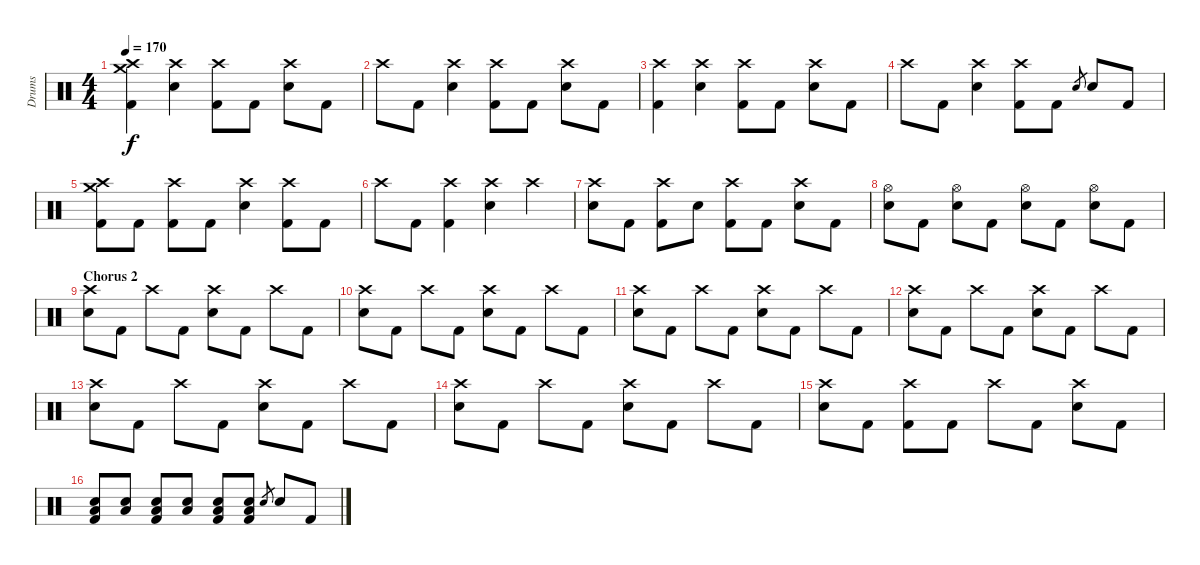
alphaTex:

\track ("Drums" "Drums") {instrument percussion}
\staff {score}
\articulation defaults
\ts (4 4)
\tempo 170
\clef neutral
\ks c
("Crash medium (hit)" "Crash high (hit)" "Kick (hit) 2").4{dy f} ("Crash high (hit)" "Snare (hit) 2").4 ("Crash high (hit)" "Kick (hit) 2").8 "Kick (hit) 2".8 ("Crash high (hit)" "Snare (hit) 2").8 "Kick (hit) 2".8 |
"Crash high (hit)".8 "Kick (hit) 2".8 ("Crash high (hit)" "Snare (hit) 2").4 ("Crash high (hit)" "Kick (hit) 2").8 "Kick (hit) 2".8 ("Crash high (hit)" "Snare (hit) 2").8 "Kick (hit) 2".8 |
("Crash high (hit)" "Kick (hit) 2").4 ("Crash high (hit)" "Snare (hit) 2").4 ("Crash high (hit)" "Kick (hit) 2").8 "Kick (hit) 2".8 ("Crash high (hit)" "Snare (hit) 2").8 "Kick (hit) 2".8 |
"Crash high (hit)".8 "Kick (hit) 2".8 ("Crash high (hit)" "Snare (hit) 2").4 ("Crash high (hit)" "Kick (hit) 2").8 "Kick (hit) 2".8 "Snare (hit) 2".8{gr} "Snare (hit) 2".8 "Kick (hit) 2".8 |
("Crash medium (hit)" "Crash high (hit)" "Kick (hit) 2").8 "Kick (hit) 2".8 ("Crash high (hit)" "Kick (hit) 2").8 "Kick (hit) 2".8 ("Crash high (hit)" "Snare (hit) 2").4 ("Crash high (hit)" "Kick (hit) 2").8 "Kick (hit) 2".8 |
"Crash high (hit)".8 "Kick (hit) 2".8 ("Crash high (hit)" "Kick (hit) 2").4 ("Crash high (hit)" "Snare (hit) 2").4 "Crash high (hit)".4 |
("Crash high (hit)" "Snare (hit) 2").8 "Kick (hit) 2".8 ("Crash high (hit)" "Kick (hit) 2").8 "Snare (hit) 2".8 ("Crash high (hit)" "Kick (hit) 2").8 "Kick (hit) 2".8 ("Crash high (hit)" "Snare (hit) 2").8 "Kick (hit) 2".8 |
("Hi-Hat (open)" "Snare (hit) 2").8 "Kick (hit) 2".8 ("Hi-Hat (open)" "Snare (hit) 2").8 "Kick (hit) 2".8 ("Hi-Hat (open)" "Snare (hit) 2").8 "Kick (hit) 2".8 ("Hi-Hat (open)" "Snare (hit) 2").8 "Kick (hit) 2".8 |
\section ("" "Chorus 2")
("Crash high (hit)" "Snare (hit) 2").8 "Kick (hit) 2".8 "Crash high (hit)".8 "Kick (hit) 2".8 ("Crash high (hit)" "Snare (hit) 2").8 "Kick (hit) 2".8 "Crash high (hit)".8 "Kick (hit) 2".8 |
("Crash high (hit)" "Snare (hit) 2").8 "Kick (hit) 2".8 "Crash high (hit)".8 "Kick (hit) 2".8 ("Crash high (hit)" "Snare (hit) 2").8 "Kick (hit) 2".8 "Crash high (hit)".8 "Kick (hit) 2".8 |
("Crash high (hit)" "Snare (hit) 2").8 "Kick (hit) 2".8 "Crash high (hit)".8 "Kick (hit) 2".8 ("Crash high (hit)" "Snare (hit) 2").8 "Kick (hit) 2".8 "Crash high (hit)".8 "Kick (hit) 2".8 |
("Crash high (hit)" "Snare (hit) 2").8 "Kick (hit) 2".8 "Crash high (hit)".8 "Kick (hit) 2".8 ("Crash high (hit)" "Snare (hit) 2").8 "Kick (hit) 2".8 "Crash high (hit)".8 "Kick (hit) 2".8 |
("Crash high (hit)" "Snare (hit) 2").8 "Kick (hit) 2".8 "Crash high (hit)".8 "Kick (hit) 2".8 ("Crash high (hit)" "Snare (hit) 2").8 "Kick (hit) 2".8 "Crash high (hit)".8 "Kick (hit) 2".8 |
("Crash high (hit)" "Snare (hit) 2").8 "Kick (hit) 2".8 "Crash high (hit)".8 "Kick (hit) 2".8 ("Crash high (hit)" "Snare (hit) 2").8 "Kick (hit) 2".8 "Crash high (hit)".8 "Kick (hit) 2".8 |
("Crash high (hit)" "Snare (hit) 2").8 "Kick (hit) 2".8 ("Crash high (hit)" "Kick (hit) 2").8 "Kick (hit) 2".8 "Crash high (hit)".8 "Kick (hit) 2".8 ("Crash high (hit)" "Snare (hit) 2").8 "Kick (hit) 2".8 |
("Low Floor Tom (hit)" "Snare (hit) 2" "Kick (hit) 2").8 ("Low Floor Tom (hit)" "Snare (hit) 2").8 ("Low Floor Tom (hit)" "Snare (hit) 2" "Kick (hit) 2").8 ("Low Floor Tom (hit)" "Snare (hit) 2").8 ("Low Floor Tom (hit)" "Snare (hit) 2" "Kick (hit) 2").8 ("Low Floor Tom (hit)" "Snare (hit) 2" "Kick (hit) 2").8 "Snare (hit) 2".8{gr} "Snare (hit) 2".8 "Kick (hit) 2".8
